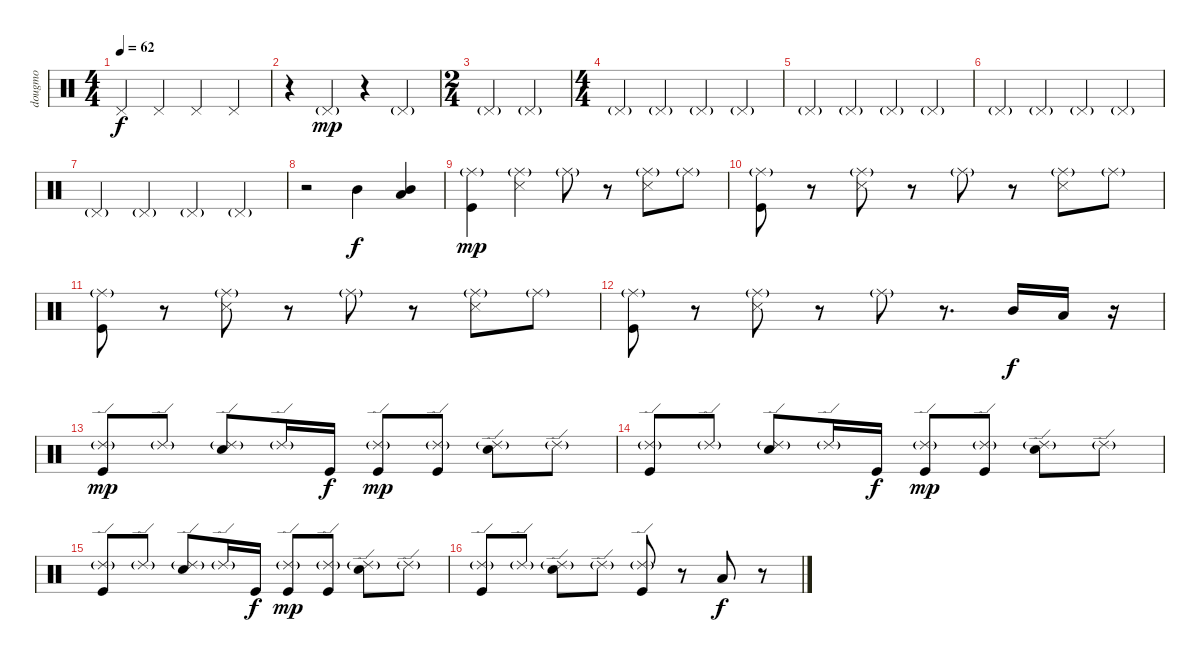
\track ("dougmo" "dougmo") {instrument percussion}
\staff {score}
\articulation defaults
\ts (4 4)
\tempo 62
\clef neutral
\ks c "Pedal Hi-Hat (hit)".4{dy f} "Pedal Hi-Hat (hit)".4 "Pedal Hi-Hat (hit)".4 "Pedal Hi-Hat (hit)".4
|
r.4 "Pedal Hi-Hat (hit)"{g}.4{dy mp} r.4 "Pedal Hi-Hat (hit)"{g}.4 |
\ts (2 4)
"Pedal Hi-Hat (hit)"{g}.4 "Pedal Hi-Hat (hit)"{g}.4 |
\ts (4 4)
"Pedal Hi-Hat (hit)"{g}.4 "Pedal Hi-Hat (hit)"{g}.4 "Pedal Hi-Hat (hit)"{g}.4 "Pedal Hi-Hat (hit)"{g}.4 |
"Pedal Hi-Hat (hit)"{g}.4 "Pedal Hi-Hat (hit)"{g}.4 "Pedal Hi-Hat (hit)"{g}.4 "Pedal Hi-Hat (hit)"{g}.4 |
"Pedal Hi-Hat (hit)"{g}.4 "Pedal Hi-Hat (hit)"{g}.4 "Pedal Hi-Hat (hit)"{g}.4 "Pedal Hi-Hat (hit)"{g}.4 |
"Pedal Hi-Hat (hit)"{g}.4 "Pedal Hi-Hat (hit)"{g}.4 "Pedal Hi-Hat (hit)"{g}.4 "Pedal Hi-Hat (hit)"{g}.4 |
r.2 "Mid Tom (hit)".4{dy f} ("Low Tom (hit)" "Mid Tom (hit)").4 |
("Ride (middle)"{g} "Kick (hit)").4{dy mp} ("Snare (side stick) 3" "Ride (middle)"{g}).4 "Ride (middle)"{g}.8 r.8 ("Snare (side stick) 3" "Ride (middle)"{g}).8 "Ride (middle)"{g}.8 |
("Ride (middle)"{g} "Kick (hit)").8 r.8 ("Ride (middle)"{g} "Snare (side stick) 3").8 r.8 "Ride (middle)"{g}.8 r.8 ("Snare (side stick) 3" "Ride (middle)"{g}).8 "Ride (middle)"{g}.8 |
("Ride (middle)"{g} "Kick (hit)").8 r.8 ("Ride (middle)"{g} "Snare (side stick) 3").8 r.8 "Ride (middle)"{g}.8 r.8 ("Ride (middle)"{g} "Snare (side stick) 3").8 "Ride (middle)"{g}.8 |
("Ride (middle)"{g} "Kick (hit)").8 r.8 ("Ride (middle)"{g} "Snare (side stick) 3").8 r.8 "Ride (middle)"{g}.8 r.8{d} "Mid Tom (hit)".16{dy f} "Low Tom (hit)".16 r.16 |
("Kick (hit)" "Ride (edge) 2"{g}).8{dy mp} "Ride (edge) 2"{g}.8 ("Snare (hit) 2" "Ride (edge) 2"{g}).8 "Ride (edge) 2"{g}.16 "Kick (hit)".16{dy f} ("Kick (hit)" "Ride (edge) 2"{g}).8{dy mp} ("Kick (hit)" "Ride (edge) 2"{g}).8 ("Snare (hit) 2" "Ride (edge) 2"{g}).8 "Ride (edge) 2"{g}.8 |
("Kick (hit)" "Ride (edge) 2"{g}).8 "Ride (edge) 2"{g}.8 ("Snare (hit) 2" "Ride (edge) 2"{g}).8 "Ride (edge) 2"{g}.16 "Kick (hit)".16{dy f} ("Kick (hit)" "Ride (edge) 2"{g}).8{dy mp} ("Kick (hit)" "Ride (edge) 2"{g}).8 ("Snare (hit) 2" "Ride (edge) 2"{g}).8 "Ride (edge) 2"{g}.8 |
("Kick (hit)" "Ride (edge) 2"{g}).8 "Ride (edge) 2"{g}.8 ("Snare (hit) 2" "Ride (edge) 2"{g}).8 "Ride (edge) 2"{g}.16 "Kick (hit)".16{dy f} ("Kick (hit)" "Ride (edge) 2"{g}).8{dy mp} ("Kick (hit)" "Ride (edge) 2"{g}).8 ("Snare (hit) 2" "Ride (edge) 2"{g}).8 "Ride (edge) 2"{g}.8 |
("Ride (edge) 2"{g} "Kick (hit)").8 "Ride (edge) 2"{g}.8 ("Ride (edge) 2"{g} "Snare (hit) 2").8 "Ride (edge) 2"{g}.8 ("Ride (edge) 2"{g} "Kick (hit)").8 r.8 "Low Tom (hit)".8{dy f} r.8
